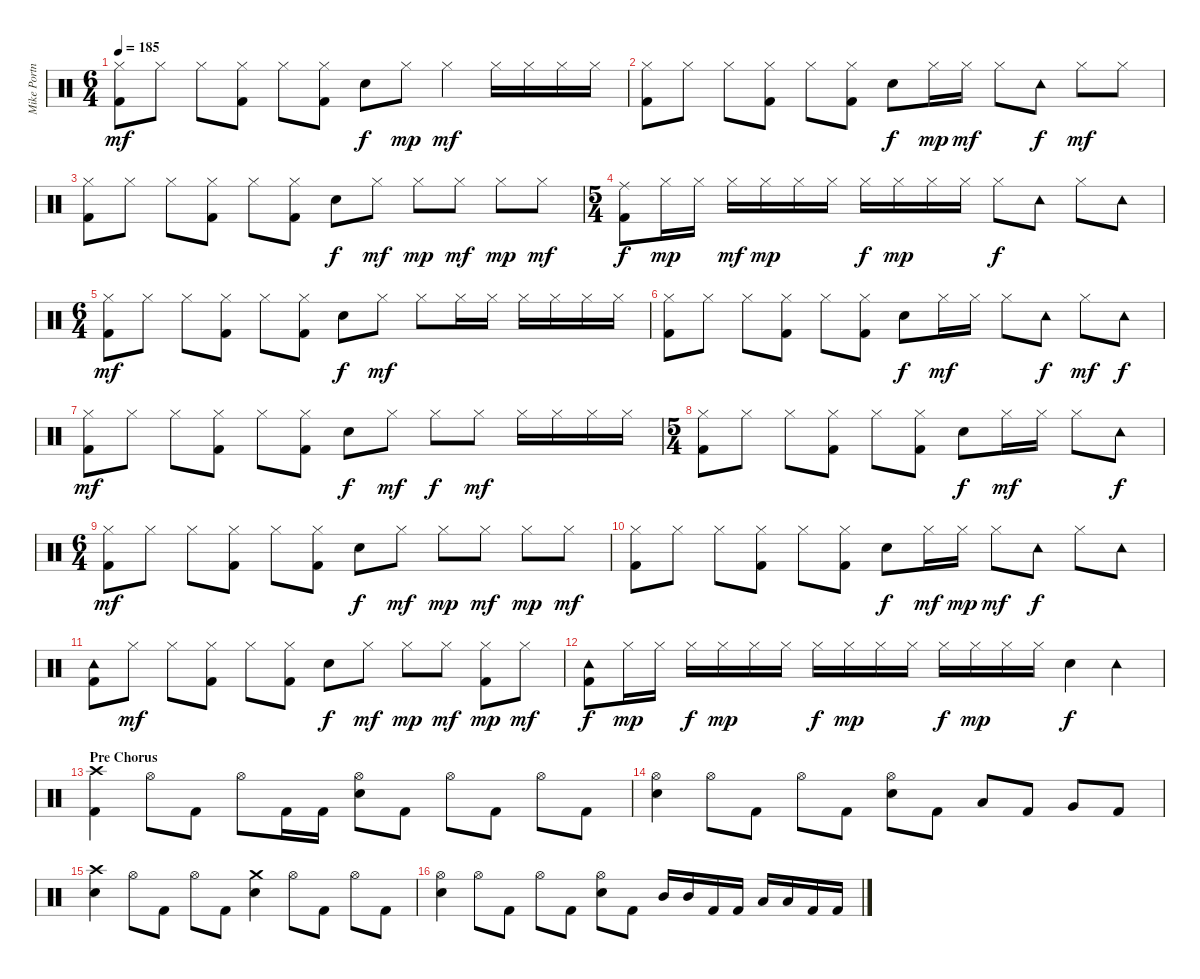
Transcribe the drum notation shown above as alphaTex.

\track ("Mike Portnoy" "Mike Portn") {instrument percussion}
\staff {score}
\articulation defaults
\ts (6 4)
\tempo 185
\clef neutral
\ks c
("Hi-Hat (closed)" "Kick (hit) 2").8{dy mf} "Hi-Hat (closed)".8 "Hi-Hat (closed)".8 ("Hi-Hat (closed)" "Kick (hit) 2").8 "Hi-Hat (closed)".8 ("Hi-Hat (closed)" "Kick (hit) 2").8 "Snare (hit) 2".8{dy f} "Hi-Hat (closed)".8{dy mp} "Hi-Hat (closed)".4{dy mf} "Hi-Hat (closed)".16 "Hi-Hat (closed)".16 "Hi-Hat (closed)".16 "Hi-Hat (closed)".16 |
("Hi-Hat (closed)" "Kick (hit) 2").8 "Hi-Hat (closed)".8 "Hi-Hat (closed)".8 ("Hi-Hat (closed)" "Kick (hit) 2").8 "Hi-Hat (closed)".8 ("Hi-Hat (closed)" "Kick (hit) 2").8 "Snare (hit) 2".8{dy f} "Hi-Hat (closed)".16{dy mp} "Hi-Hat (closed)".16{dy mf} "Hi-Hat (closed)".8 "Tambourine (hit)".8{dy f} "Hi-Hat (closed)".8{dy mf} "Hi-Hat (closed)".8 |
("Hi-Hat (closed)" "Kick (hit) 2").8 "Hi-Hat (closed)".8 "Hi-Hat (closed)".8 ("Hi-Hat (closed)" "Kick (hit) 2").8 "Hi-Hat (closed)".8 ("Hi-Hat (closed)" "Kick (hit) 2").8 "Snare (hit) 2".8{dy f} "Hi-Hat (closed)".8{dy mf} "Hi-Hat (closed)".8{dy mp} "Hi-Hat (closed)".8{dy mf} "Hi-Hat (closed)".8{dy mp} "Hi-Hat (closed)".8{dy mf} |
\ts (5 4)
("Ride (middle)" "Kick (hit) 2").8{dy f} "Hi-Hat (closed)".16{dy mp} "Hi-Hat (closed)".16 "Hi-Hat (closed)".16{dy mf} "Hi-Hat (closed)".16{dy mp} "Hi-Hat (closed)".16 "Hi-Hat (closed)".16 "Hi-Hat (closed)".16{dy f} "Hi-Hat (closed)".16{dy mp} "Hi-Hat (closed)".16 "Hi-Hat (closed)".16 "Hi-Hat (closed)".8{dy f} "Tambourine (hit)".8 "Hi-Hat (closed)".8 "Tambourine (hit)".8 |
\ts (6 4)
("Hi-Hat (closed)" "Kick (hit) 2").8{dy mf} "Hi-Hat (closed)".8 "Hi-Hat (closed)".8 ("Hi-Hat (closed)" "Kick (hit) 2").8 "Hi-Hat (closed)".8 ("Hi-Hat (closed)" "Kick (hit) 2").8 "Snare (hit) 2".8{dy f} "Hi-Hat (closed)".8{dy mf} "Hi-Hat (closed)".8 "Hi-Hat (closed)".16 "Hi-Hat (closed)".16 "Hi-Hat (closed)".16 "Hi-Hat (closed)".16 "Hi-Hat (closed)".16 "Hi-Hat (closed)".16 |
("Hi-Hat (closed)" "Kick (hit) 2").8 "Hi-Hat (closed)".8 "Hi-Hat (closed)".8 ("Hi-Hat (closed)" "Kick (hit) 2").8 "Hi-Hat (closed)".8 ("Hi-Hat (closed)" "Kick (hit) 2").8 "Snare (hit) 2".8{dy f} "Hi-Hat (closed)".16{dy mf} "Hi-Hat (closed)".16 "Hi-Hat (closed)".8 "Tambourine (hit)".8{dy f} "Hi-Hat (closed)".8{dy mf} "Tambourine (hit)".8{dy f} |
("Hi-Hat (closed)" "Kick (hit) 2").8{dy mf} "Hi-Hat (closed)".8 "Hi-Hat (closed)".8 ("Hi-Hat (closed)" "Kick (hit) 2").8 "Hi-Hat (closed)".8 ("Hi-Hat (closed)" "Kick (hit) 2").8 "Snare (hit) 2".8{dy f} "Hi-Hat (closed)".8{dy mf} "Hi-Hat (closed)".8{dy f} "Hi-Hat (closed)".8{dy mf} "Hi-Hat (closed)".16 "Hi-Hat (closed)".16 "Hi-Hat (closed)".16 "Hi-Hat (closed)".16 |
\ts (5 4)
("Hi-Hat (closed)" "Kick (hit) 2").8 "Hi-Hat (closed)".8 "Hi-Hat (closed)".8 ("Hi-Hat (closed)" "Kick (hit) 2").8 "Hi-Hat (closed)".8 ("Hi-Hat (closed)" "Kick (hit) 2").8 "Snare (hit) 2".8{dy f} "Hi-Hat (closed)".16{dy mf} "Hi-Hat (closed)".16 "Hi-Hat (closed)".8 "Tambourine (hit)".8{dy f} |
\ts (6 4)
("Hi-Hat (closed)" "Kick (hit) 2").8{dy mf} "Hi-Hat (closed)".8 "Hi-Hat (closed)".8 ("Hi-Hat (closed)" "Kick (hit) 2").8 "Hi-Hat (closed)".8 ("Hi-Hat (closed)" "Kick (hit) 2").8 "Snare (hit) 2".8{dy f} "Hi-Hat (closed)".8{dy mf} "Hi-Hat (closed)".8{dy mp} "Hi-Hat (closed)".8{dy mf} "Hi-Hat (closed)".8{dy mp} "Hi-Hat (closed)".8{dy mf} |
("Hi-Hat (closed)" "Kick (hit) 2").8 "Hi-Hat (closed)".8 "Hi-Hat (closed)".8 ("Hi-Hat (closed)" "Kick (hit) 2").8 "Hi-Hat (closed)".8 ("Hi-Hat (closed)" "Kick (hit) 2").8 "Snare (hit) 2".8{dy f} "Hi-Hat (closed)".16{dy mf} "Hi-Hat (closed)".16{dy mp} "Hi-Hat (closed)".8{dy mf} "Tambourine (hit)".8{dy f} "Hi-Hat (closed)".8 "Tambourine (hit)".8 |
("Tambourine (hit)" "Kick (hit) 2").8 "Hi-Hat (closed)".8{dy mf} "Hi-Hat (closed)".8 ("Hi-Hat (closed)" "Kick (hit) 2").8 "Hi-Hat (closed)".8 ("Hi-Hat (closed)" "Kick (hit) 2").8 "Snare (hit) 2".8{dy f} "Hi-Hat (closed)".8{dy mf} "Hi-Hat (closed)".8{dy mp} "Hi-Hat (closed)".8{dy mf} ("Hi-Hat (closed)" "Kick (hit) 2").8{dy mp} "Hi-Hat (closed)".8{dy mf} |
("Tambourine (hit)" "Kick (hit) 2").8{dy f} "Hi-Hat (closed)".16{dy mp} "Hi-Hat (closed)".16 "Hi-Hat (closed)".16{dy f} "Hi-Hat (closed)".16{dy mp} "Hi-Hat (closed)".16 "Hi-Hat (closed)".16 "Hi-Hat (closed)".16{dy f} "Hi-Hat (closed)".16{dy mp} "Hi-Hat (closed)".16 "Hi-Hat (closed)".16 "Hi-Hat (closed)".16{dy f} "Hi-Hat (closed)".16{dy mp} "Hi-Hat (closed)".16 "Hi-Hat (closed)".16 "Snare (hit) 2".4{dy f} "Tambourine (hit)".4 |
\section ("" "Pre Chorus")
("Crash high (hit)" "Kick (hit) 2").4 "Hi-Hat (open)".8 "Kick (hit) 2".8 "Hi-Hat (open)".8 "Kick (hit) 2".16 "Kick (hit) 2".16 ("Snare (hit) 2" "Hi-Hat (open)").8 "Kick (hit) 2".8 "Hi-Hat (open)".8 "Kick (hit) 2".8 "Hi-Hat (open)".8 "Kick (hit) 2".8 |
("Snare (hit) 2" "Hi-Hat (open)").4 "Hi-Hat (open)".8 "Kick (hit) 2".8 "Hi-Hat (open)".8 "Kick (hit) 2".8 ("Snare (hit) 2" "Hi-Hat (open)").8 "Kick (hit) 2".8 "Low Floor Tom (hit)".8 "Kick (hit) 2".8 "Very Low Tom (hit)".8 "Kick (hit) 2".8 |
("Snare (hit) 2" "Crash high (hit)").4 "Hi-Hat (open)".8 "Kick (hit) 2".8 "Hi-Hat (open)".8 "Kick (hit) 2".8 ("Snare (hit) 2" "Crash medium (hit)").4 "Hi-Hat (open)".8 "Kick (hit) 2".8 "Hi-Hat (open)".8 "Kick (hit) 2".8 |
("Snare (hit) 2" "Hi-Hat (open)").4 "Hi-Hat (open)".8 "Kick (hit) 2".8 "Hi-Hat (open)".8 "Kick (hit) 2".8 ("Snare (hit) 2" "Hi-Hat (open)").8 "Kick (hit) 2".8 "Mid Tom (hit)".16 "Mid Tom (hit)".16 "Kick (hit) 2".16 "Kick (hit) 2".16 "Low Tom (hit)".16 "Low Tom (hit)".16 "Kick (hit) 2".16 "Kick (hit) 2".16
